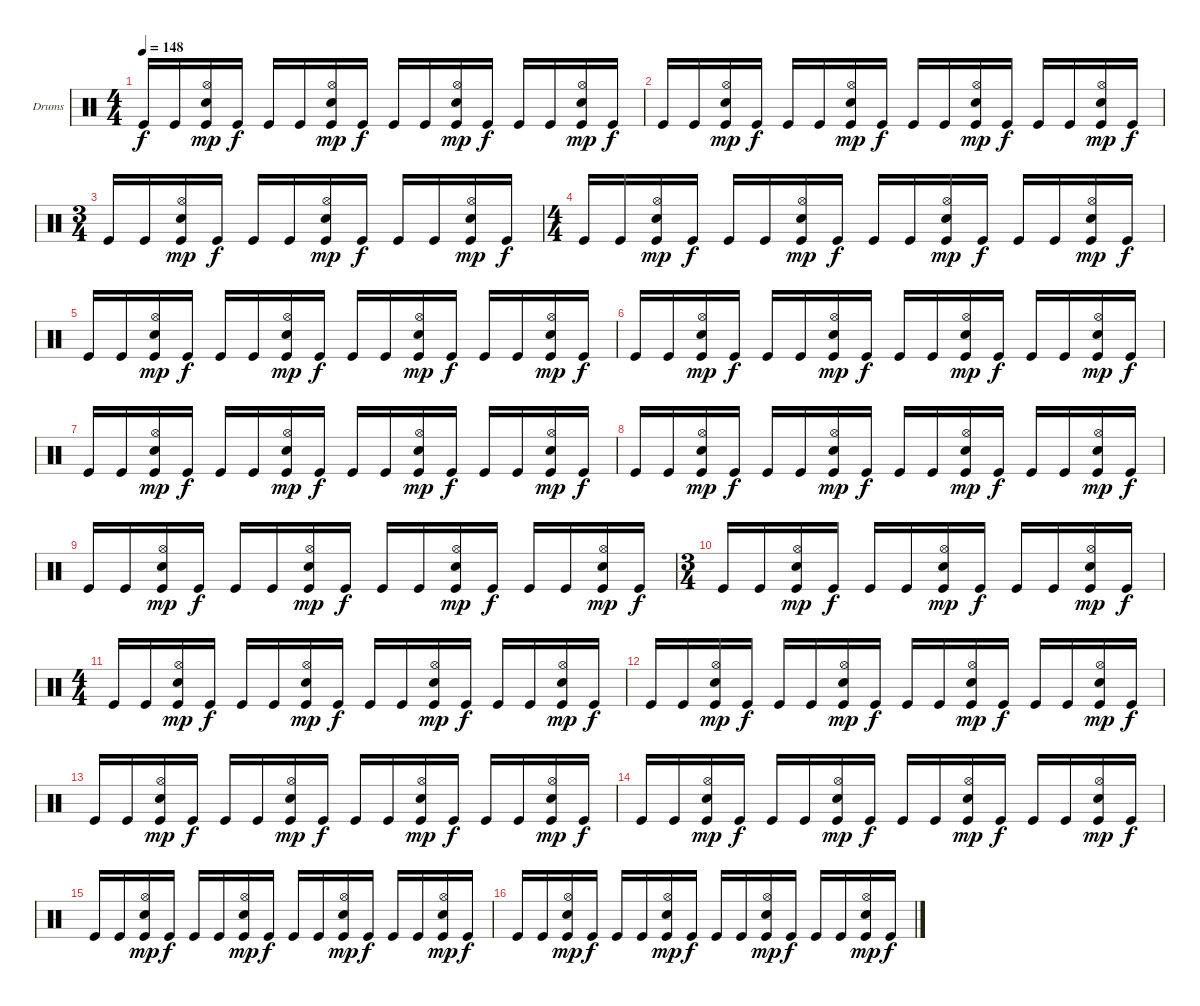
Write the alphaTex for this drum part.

\bracketExtendMode groupsimilarinstruments
\firstSystemTrackNameOrientation horizontal
\otherSystemsTrackNameOrientation horizontal
\track ("Drumkit" "Drums") {instrument percussion}
\staff {score}
\articulation defaults
\ts (4 4)
\tempo 148
\clef neutral
\ks c "Kick (hit)".16{dy f} "Kick (hit)".16
("Hi-Hat (open)" "Kick (hit)" "Snare (hit) 2").16{dy mp} "Kick (hit)".16{dy f} "Kick (hit)".16 "Kick (hit)".16 ("Hi-Hat (open)" "Kick (hit)" "Snare (hit) 2").16{dy mp} "Kick (hit)".16{dy f} "Kick (hit)".16 "Kick (hit)".16 ("Hi-Hat (open)" "Kick (hit)" "Snare (hit) 2").16{dy mp} "Kick (hit)".16{dy f} "Kick (hit)".16 "Kick (hit)".16 ("Hi-Hat (open)" "Kick (hit)" "Snare (hit) 2").16{dy mp} "Kick (hit)".16{dy f} |
"Kick (hit)".16 "Kick (hit)".16 ("Hi-Hat (open)" "Kick (hit)" "Snare (hit) 2").16{dy mp} "Kick (hit)".16{dy f} "Kick (hit)".16 "Kick (hit)".16 ("Hi-Hat (open)" "Kick (hit)" "Snare (hit) 2").16{dy mp} "Kick (hit)".16{dy f} "Kick (hit)".16 "Kick (hit)".16 ("Hi-Hat (open)" "Kick (hit)" "Snare (hit) 2").16{dy mp} "Kick (hit)".16{dy f} "Kick (hit)".16 "Kick (hit)".16 ("Hi-Hat (open)" "Kick (hit)" "Snare (hit) 2").16{dy mp} "Kick (hit)".16{dy f} |
\ts (3 4)
\beaming (8 2 2 2)
"Kick (hit)".16 "Kick (hit)".16 ("Hi-Hat (open)" "Kick (hit)" "Snare (hit) 2").16{dy mp} "Kick (hit)".16{dy f} "Kick (hit)".16 "Kick (hit)".16 ("Hi-Hat (open)" "Kick (hit)" "Snare (hit) 2").16{dy mp} "Kick (hit)".16{dy f} "Kick (hit)".16 "Kick (hit)".16 ("Hi-Hat (open)" "Kick (hit)" "Snare (hit) 2").16{dy mp} "Kick (hit)".16{dy f} |
\ts (4 4)
\beaming (8 2 2 2 2)
"Kick (hit)".16 "Kick (hit)".16 ("Hi-Hat (open)" "Kick (hit)" "Snare (hit) 2").16{dy mp} "Kick (hit)".16{dy f} "Kick (hit)".16 "Kick (hit)".16 ("Hi-Hat (open)" "Kick (hit)" "Snare (hit) 2").16{dy mp} "Kick (hit)".16{dy f} "Kick (hit)".16 "Kick (hit)".16 ("Hi-Hat (open)" "Kick (hit)" "Snare (hit) 2").16{dy mp} "Kick (hit)".16{dy f} "Kick (hit)".16 "Kick (hit)".16 ("Hi-Hat (open)" "Kick (hit)" "Snare (hit) 2").16{dy mp} "Kick (hit)".16{dy f} |
"Kick (hit)".16 "Kick (hit)".16 ("Hi-Hat (open)" "Kick (hit)" "Snare (hit) 2").16{dy mp} "Kick (hit)".16{dy f} "Kick (hit)".16 "Kick (hit)".16 ("Hi-Hat (open)" "Kick (hit)" "Snare (hit) 2").16{dy mp} "Kick (hit)".16{dy f} "Kick (hit)".16 "Kick (hit)".16 ("Hi-Hat (open)" "Kick (hit)" "Snare (hit) 2").16{dy mp} "Kick (hit)".16{dy f} "Kick (hit)".16 "Kick (hit)".16 ("Hi-Hat (open)" "Kick (hit)" "Snare (hit) 2").16{dy mp} "Kick (hit)".16{dy f} |
"Kick (hit)".16 "Kick (hit)".16 ("Hi-Hat (open)" "Kick (hit)" "Snare (hit) 2").16{dy mp} "Kick (hit)".16{dy f} "Kick (hit)".16 "Kick (hit)".16 ("Hi-Hat (open)" "Kick (hit)" "Snare (hit) 2").16{dy mp} "Kick (hit)".16{dy f} "Kick (hit)".16 "Kick (hit)".16 ("Hi-Hat (open)" "Kick (hit)" "Snare (hit) 2").16{dy mp} "Kick (hit)".16{dy f} "Kick (hit)".16 "Kick (hit)".16 ("Hi-Hat (open)" "Kick (hit)" "Snare (hit) 2").16{dy mp} "Kick (hit)".16{dy f} |
"Kick (hit)".16 "Kick (hit)".16 ("Hi-Hat (open)" "Kick (hit)" "Snare (hit) 2").16{dy mp} "Kick (hit)".16{dy f} "Kick (hit)".16 "Kick (hit)".16 ("Hi-Hat (open)" "Kick (hit)" "Snare (hit) 2").16{dy mp} "Kick (hit)".16{dy f} "Kick (hit)".16 "Kick (hit)".16 ("Hi-Hat (open)" "Kick (hit)" "Snare (hit) 2").16{dy mp} "Kick (hit)".16{dy f} "Kick (hit)".16 "Kick (hit)".16 ("Hi-Hat (open)" "Kick (hit)" "Snare (hit) 2").16{dy mp} "Kick (hit)".16{dy f} |
"Kick (hit)".16 "Kick (hit)".16 ("Hi-Hat (open)" "Kick (hit)" "Snare (hit) 2").16{dy mp} "Kick (hit)".16{dy f} "Kick (hit)".16 "Kick (hit)".16 ("Hi-Hat (open)" "Kick (hit)" "Snare (hit) 2").16{dy mp} "Kick (hit)".16{dy f} "Kick (hit)".16 "Kick (hit)".16 ("Hi-Hat (open)" "Kick (hit)" "Snare (hit) 2").16{dy mp} "Kick (hit)".16{dy f} "Kick (hit)".16 "Kick (hit)".16 ("Hi-Hat (open)" "Kick (hit)" "Snare (hit) 2").16{dy mp} "Kick (hit)".16{dy f} |
"Kick (hit)".16 "Kick (hit)".16 ("Hi-Hat (open)" "Kick (hit)" "Snare (hit) 2").16{dy mp} "Kick (hit)".16{dy f} "Kick (hit)".16 "Kick (hit)".16 ("Hi-Hat (open)" "Kick (hit)" "Snare (hit) 2").16{dy mp} "Kick (hit)".16{dy f} "Kick (hit)".16 "Kick (hit)".16 ("Hi-Hat (open)" "Kick (hit)" "Snare (hit) 2").16{dy mp} "Kick (hit)".16{dy f} "Kick (hit)".16 "Kick (hit)".16 ("Hi-Hat (open)" "Kick (hit)" "Snare (hit) 2").16{dy mp} "Kick (hit)".16{dy f} |
\ts (3 4)
\beaming (8 2 2 2)
"Kick (hit)".16 "Kick (hit)".16 ("Hi-Hat (open)" "Kick (hit)" "Snare (hit) 2").16{dy mp} "Kick (hit)".16{dy f} "Kick (hit)".16 "Kick (hit)".16 ("Hi-Hat (open)" "Kick (hit)" "Snare (hit) 2").16{dy mp} "Kick (hit)".16{dy f} "Kick (hit)".16 "Kick (hit)".16 ("Hi-Hat (open)" "Kick (hit)" "Snare (hit) 2").16{dy mp} "Kick (hit)".16{dy f} |
\ts (4 4)
\beaming (8 2 2 2 2)
"Kick (hit)".16 "Kick (hit)".16 ("Hi-Hat (open)" "Kick (hit)" "Snare (hit) 2").16{dy mp} "Kick (hit)".16{dy f} "Kick (hit)".16 "Kick (hit)".16 ("Hi-Hat (open)" "Kick (hit)" "Snare (hit) 2").16{dy mp} "Kick (hit)".16{dy f} "Kick (hit)".16 "Kick (hit)".16 ("Hi-Hat (open)" "Kick (hit)" "Snare (hit) 2").16{dy mp} "Kick (hit)".16{dy f} "Kick (hit)".16 "Kick (hit)".16 ("Hi-Hat (open)" "Kick (hit)" "Snare (hit) 2").16{dy mp} "Kick (hit)".16{dy f} |
"Kick (hit)".16 "Kick (hit)".16 ("Hi-Hat (open)" "Kick (hit)" "Snare (hit) 2").16{dy mp} "Kick (hit)".16{dy f} "Kick (hit)".16 "Kick (hit)".16 ("Hi-Hat (open)" "Kick (hit)" "Snare (hit) 2").16{dy mp} "Kick (hit)".16{dy f} "Kick (hit)".16 "Kick (hit)".16 ("Hi-Hat (open)" "Kick (hit)" "Snare (hit) 2").16{dy mp} "Kick (hit)".16{dy f} "Kick (hit)".16 "Kick (hit)".16 ("Hi-Hat (open)" "Kick (hit)" "Snare (hit) 2").16{dy mp} "Kick (hit)".16{dy f} |
"Kick (hit)".16 "Kick (hit)".16 ("Hi-Hat (open)" "Kick (hit)" "Snare (hit) 2").16{dy mp} "Kick (hit)".16{dy f} "Kick (hit)".16 "Kick (hit)".16 ("Hi-Hat (open)" "Kick (hit)" "Snare (hit) 2").16{dy mp} "Kick (hit)".16{dy f} "Kick (hit)".16 "Kick (hit)".16 ("Hi-Hat (open)" "Kick (hit)" "Snare (hit) 2").16{dy mp} "Kick (hit)".16{dy f} "Kick (hit)".16 "Kick (hit)".16 ("Hi-Hat (open)" "Kick (hit)" "Snare (hit) 2").16{dy mp} "Kick (hit)".16{dy f} |
"Kick (hit)".16 "Kick (hit)".16 ("Hi-Hat (open)" "Kick (hit)" "Snare (hit) 2").16{dy mp} "Kick (hit)".16{dy f} "Kick (hit)".16 "Kick (hit)".16 ("Hi-Hat (open)" "Kick (hit)" "Snare (hit) 2").16{dy mp} "Kick (hit)".16{dy f} "Kick (hit)".16 "Kick (hit)".16 ("Hi-Hat (open)" "Kick (hit)" "Snare (hit) 2").16{dy mp} "Kick (hit)".16{dy f} "Kick (hit)".16 "Kick (hit)".16 ("Hi-Hat (open)" "Kick (hit)" "Snare (hit) 2").16{dy mp} "Kick (hit)".16{dy f} |
"Kick (hit)".16 "Kick (hit)".16 ("Hi-Hat (open)" "Kick (hit)" "Snare (hit) 2").16{dy mp} "Kick (hit)".16{dy f} "Kick (hit)".16 "Kick (hit)".16 ("Hi-Hat (open)" "Kick (hit)" "Snare (hit) 2").16{dy mp} "Kick (hit)".16{dy f} "Kick (hit)".16 "Kick (hit)".16 ("Hi-Hat (open)" "Kick (hit)" "Snare (hit) 2").16{dy mp} "Kick (hit)".16{dy f} "Kick (hit)".16 "Kick (hit)".16 ("Hi-Hat (open)" "Kick (hit)" "Snare (hit) 2").16{dy mp} "Kick (hit)".16{dy f} |
"Kick (hit)".16 "Kick (hit)".16 ("Hi-Hat (open)" "Kick (hit)" "Snare (hit) 2").16{dy mp} "Kick (hit)".16{dy f} "Kick (hit)".16 "Kick (hit)".16 ("Hi-Hat (open)" "Kick (hit)" "Snare (hit) 2").16{dy mp} "Kick (hit)".16{dy f} "Kick (hit)".16 "Kick (hit)".16 ("Hi-Hat (open)" "Kick (hit)" "Snare (hit) 2").16{dy mp} "Kick (hit)".16{dy f} "Kick (hit)".16 "Kick (hit)".16 ("Hi-Hat (open)" "Kick (hit)" "Snare (hit) 2").16{dy mp} "Kick (hit)".16{dy f}
